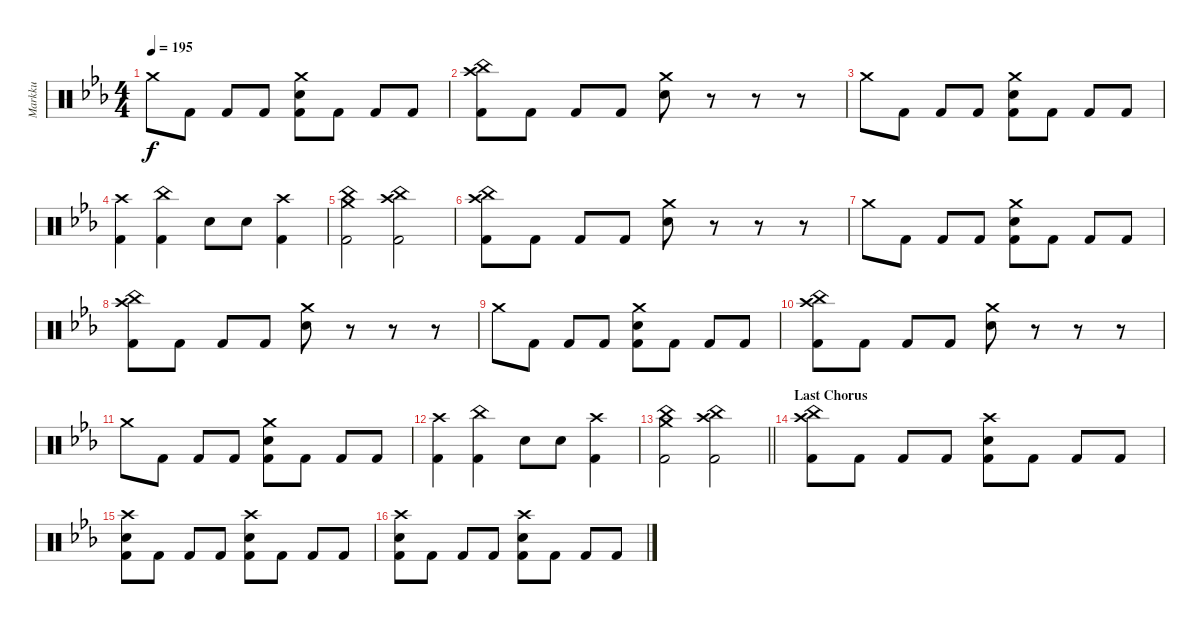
\track ("Markku" "Markku") {instrument percussion}
\staff {score}
\articulation defaults
\ts (4 4)
\tempo 195
\clef neutral
\ks cminor "Crash medium (hit)".8{dy f} "Kick (hit) 2".8 "Kick (hit) 2".8 "Kick (hit) 2".8
("Kick (hit) 2" "Crash medium (hit)" "Snare (hit) 2").8 "Kick (hit) 2".8 "Kick (hit) 2".8 "Kick (hit) 2".8 |
("Kick (hit) 2" "Crash high (hit)" "China (hit)").8 "Kick (hit) 2".8 "Kick (hit) 2".8 "Kick (hit) 2".8 ("Snare (hit) 2" "Crash medium (hit)").8 r.8 r.8 r.8 |
"Crash medium (hit)".8 "Kick (hit) 2".8 "Kick (hit) 2".8 "Kick (hit) 2".8 ("Kick (hit) 2" "Crash medium (hit)" "Snare (hit) 2").8 "Kick (hit) 2".8 "Kick (hit) 2".8 "Kick (hit) 2".8 |
("Kick (hit) 2" "Crash high (hit)").4 ("Kick (hit) 2" "China (hit)").4 "Snare (hit) 2".8 "Snare (hit) 2".8 ("Kick (hit) 2" "Crash high (hit)").4 |
("China (hit)" "Kick (hit) 2" "Crash medium (hit)").2 ("China (hit)" "Kick (hit) 2" "Crash high (hit)").2 |
("Kick (hit) 2" "Crash high (hit)" "China (hit)").8 "Kick (hit) 2".8 "Kick (hit) 2".8 "Kick (hit) 2".8 ("Snare (hit) 2" "Crash medium (hit)").8 r.8 r.8 r.8 |
"Crash medium (hit)".8 "Kick (hit) 2".8 "Kick (hit) 2".8 "Kick (hit) 2".8 ("Kick (hit) 2" "Crash medium (hit)" "Snare (hit) 2").8 "Kick (hit) 2".8 "Kick (hit) 2".8 "Kick (hit) 2".8 |
("Kick (hit) 2" "Crash high (hit)" "China (hit)").8 "Kick (hit) 2".8 "Kick (hit) 2".8 "Kick (hit) 2".8 ("Snare (hit) 2" "Crash medium (hit)").8 r.8 r.8 r.8 |
"Crash medium (hit)".8 "Kick (hit) 2".8 "Kick (hit) 2".8 "Kick (hit) 2".8 ("Kick (hit) 2" "Crash medium (hit)" "Snare (hit) 2").8 "Kick (hit) 2".8 "Kick (hit) 2".8 "Kick (hit) 2".8 |
("Kick (hit) 2" "Crash high (hit)" "China (hit)").8 "Kick (hit) 2".8 "Kick (hit) 2".8 "Kick (hit) 2".8 ("Snare (hit) 2" "Crash medium (hit)").8 r.8 r.8 r.8 |
"Crash medium (hit)".8 "Kick (hit) 2".8 "Kick (hit) 2".8 "Kick (hit) 2".8 ("Kick (hit) 2" "Crash medium (hit)" "Snare (hit) 2").8 "Kick (hit) 2".8 "Kick (hit) 2".8 "Kick (hit) 2".8 |
("Kick (hit) 2" "Crash high (hit)").4 ("Kick (hit) 2" "China (hit)").4 "Snare (hit) 2".8 "Snare (hit) 2".8 ("Kick (hit) 2" "Crash high (hit)").4 |
\barLineRight lightlight
("China (hit)" "Kick (hit) 2" "Crash medium (hit)").2 ("China (hit)" "Kick (hit) 2" "Crash high (hit)").2 |
\section ("" "Last Chorus")
("Kick (hit) 2" "Crash high (hit)" "China (hit)").8 "Kick (hit) 2".8 "Kick (hit) 2".8 "Kick (hit) 2".8 ("Kick (hit) 2" "Crash high (hit)" "Snare (hit) 2").8 "Kick (hit) 2".8 "Kick (hit) 2".8 "Kick (hit) 2".8 |
("Kick (hit) 2" "Crash high (hit)" "Snare (hit) 2").8 "Kick (hit) 2".8 "Kick (hit) 2".8 "Kick (hit) 2".8 ("Kick (hit) 2" "Crash high (hit)" "Snare (hit) 2").8 "Kick (hit) 2".8 "Kick (hit) 2".8 "Kick (hit) 2".8 |
("Kick (hit) 2" "Crash high (hit)" "Snare (hit) 2").8 "Kick (hit) 2".8 "Kick (hit) 2".8 "Kick (hit) 2".8 ("Kick (hit) 2" "Crash high (hit)" "Snare (hit) 2").8 "Kick (hit) 2".8 "Kick (hit) 2".8 "Kick (hit) 2".8
